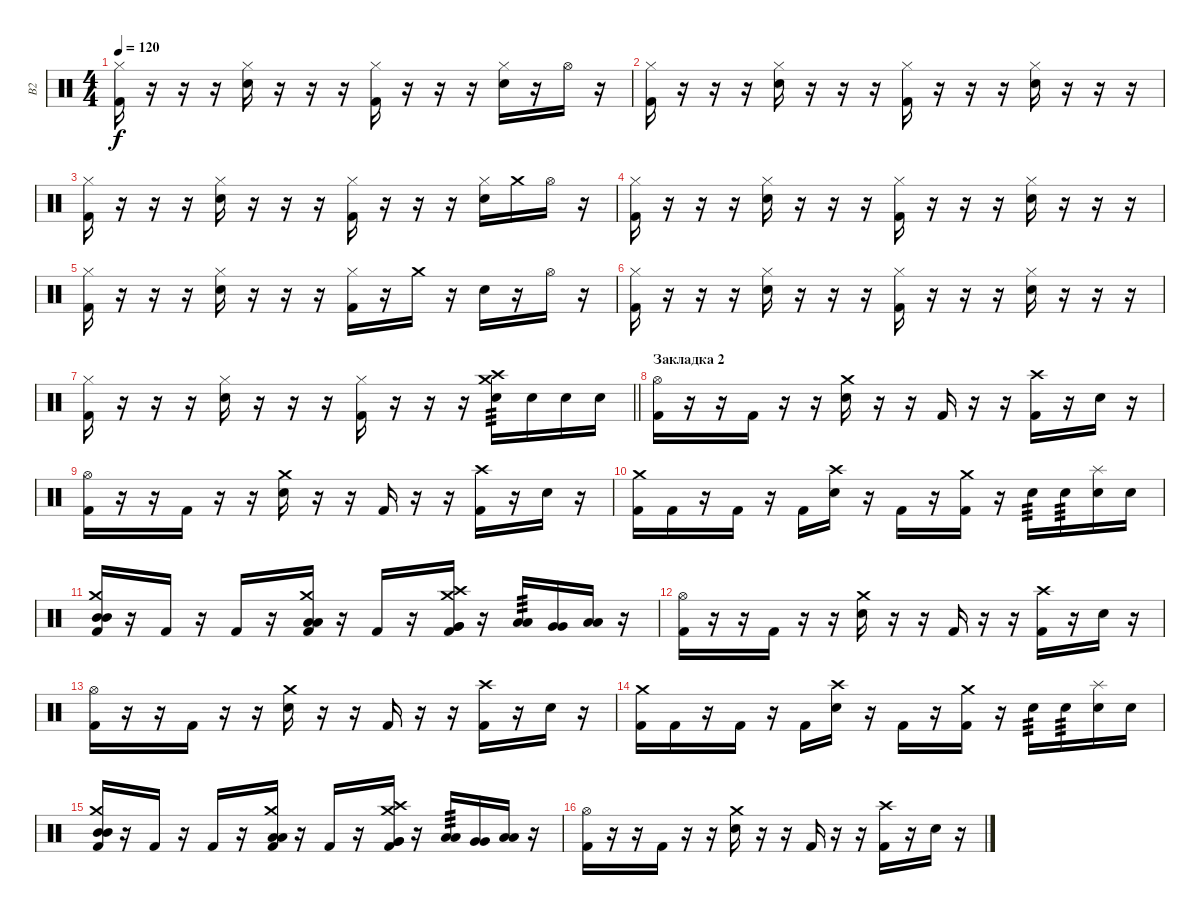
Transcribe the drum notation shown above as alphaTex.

\track ("В2" "В2") {instrument percussion}
\staff {score}
\articulation defaults
\ts (4 4)
\tempo 120
\clef neutral
\ks c
("Hi-Hat (closed)" "Kick (hit) 2").16{dy f} r.16 r.16 r.16 ("Hi-Hat (closed)" "Snare (hit) 2").16 r.16 r.16 r.16 ("Hi-Hat (closed)" "Kick (hit) 2").16 r.16 r.16 r.16 ("Hi-Hat (closed)" "Snare (hit) 2").16 r.16 "Hi-Hat (open)".16 r.16 |
("Hi-Hat (closed)" "Kick (hit) 2").16 r.16 r.16 r.16 ("Hi-Hat (closed)" "Snare (hit) 2").16 r.16 r.16 r.16 ("Hi-Hat (closed)" "Kick (hit) 2").16 r.16 r.16 r.16 ("Hi-Hat (closed)" "Snare (hit) 2").16 r.16 r.16 r.16 |
("Hi-Hat (closed)" "Kick (hit) 2").16 r.16 r.16 r.16 ("Hi-Hat (closed)" "Snare (hit) 2").16 r.16 r.16 r.16 ("Hi-Hat (closed)" "Kick (hit) 2").16 r.16 r.16 r.16 ("Hi-Hat (closed)" "Snare (hit) 2").16 "Crash medium (hit)".16 "Hi-Hat (open)".16 r.16 |
("Hi-Hat (closed)" "Kick (hit) 2").16 r.16 r.16 r.16 ("Hi-Hat (closed)" "Snare (hit) 2").16 r.16 r.16 r.16 ("Hi-Hat (closed)" "Kick (hit) 2").16 r.16 r.16 r.16 ("Hi-Hat (closed)" "Snare (hit) 2").16 r.16 r.16 r.16 |
("Hi-Hat (closed)" "Kick (hit) 2").16 r.16 r.16 r.16 ("Hi-Hat (closed)" "Snare (hit) 2").16 r.16 r.16 r.16 ("Hi-Hat (closed)" "Kick (hit) 2").16 r.16 "Crash medium (hit)".16 r.16 "Snare (hit) 2".16 r.16 "Hi-Hat (open)".16 r.16 |
("Hi-Hat (closed)" "Kick (hit) 2").16 r.16 r.16 r.16 ("Hi-Hat (closed)" "Snare (hit) 2").16 r.16 r.16 r.16 ("Hi-Hat (closed)" "Kick (hit) 2").16 r.16 r.16 r.16 ("Hi-Hat (closed)" "Snare (hit) 2").16 r.16 r.16 r.16 |
\barLineRight lightlight
("Hi-Hat (closed)" "Kick (hit) 2").16 r.16 r.16 r.16 ("Hi-Hat (closed)" "Snare (hit) 2").16 r.16 r.16 r.16 ("Hi-Hat (closed)" "Kick (hit) 2").16 r.16 r.16 r.16 ("Crash medium (hit)" "Crash high (hit)" "Snare (hit) 2").16{tp 3} "Snare (hit) 2".16 "Snare (hit) 2".16 "Snare (hit) 2".16 |
\section ("" "Закладка 2")
("Hi-Hat (open)" "Kick (hit) 2").16 r.16 r.16 "Kick (hit) 2".16 r.16 r.16 ("Crash medium (hit)" "Snare (hit) 2").16 r.16 r.16 "Kick (hit) 2".16 r.16 r.16 ("Crash high (hit)" "Kick (hit) 2").16 r.16 "Snare (hit) 2".16 r.16 |
("Hi-Hat (open)" "Kick (hit) 2").16 r.16 r.16 "Kick (hit) 2".16 r.16 r.16 ("Crash medium (hit)" "Snare (hit) 2").16 r.16 r.16 "Kick (hit) 2".16 r.16 r.16 ("Crash high (hit)" "Kick (hit) 2").16 r.16 "Snare (hit) 2".16 r.16 |
("Crash medium (hit)" "Kick (hit) 2").16 "Kick (hit) 2".16 r.16 "Kick (hit) 2".16 r.16 "Kick (hit) 2".16 ("Crash high (hit)" "Snare (hit) 2").16 r.16 "Kick (hit) 2".16 r.16 ("Crash medium (hit)" "Kick (hit) 2").16 r.16 "Snare (hit) 2".16{tp 3} "Snare (hit) 2".16{tp 3} ("Splash (hit)" "Snare (hit) 2").16 "Snare (hit) 2".16 |
("Crash medium (hit)" "Mid Tom (hit)" "Mid Tom (hit)" "Kick (hit) 2").16 r.16 "Kick (hit) 2".16 r.16 "Kick (hit) 2".16 r.16 ("Crash medium (hit)" "Low Tom (hit)" "Low Tom (hit)" "Kick (hit) 2").16 r.16 "Kick (hit) 2".16 r.16 ("Crash high (hit)" "Crash medium (hit)" "Very Low Tom (hit)" "Very Low Tom (hit)" "Kick (hit) 2").16 r.16 ("Low Tom (hit)" "Low Tom (hit)").16{tp 3} ("Very Low Tom (hit)" "Very Low Tom (hit)").16 ("Low Floor Tom (hit)" "Low Floor Tom (hit)").16 r.16 |
("Hi-Hat (open)" "Kick (hit) 2").16 r.16 r.16 "Kick (hit) 2".16 r.16 r.16 ("Crash medium (hit)" "Snare (hit) 2").16 r.16 r.16 "Kick (hit) 2".16 r.16 r.16 ("Crash high (hit)" "Kick (hit) 2").16 r.16 "Snare (hit) 2".16 r.16 |
("Hi-Hat (open)" "Kick (hit) 2").16 r.16 r.16 "Kick (hit) 2".16 r.16 r.16 ("Crash medium (hit)" "Snare (hit) 2").16 r.16 r.16 "Kick (hit) 2".16 r.16 r.16 ("Crash high (hit)" "Kick (hit) 2").16 r.16 "Snare (hit) 2".16 r.16 |
("Crash medium (hit)" "Kick (hit) 2").16 "Kick (hit) 2".16 r.16 "Kick (hit) 2".16 r.16 "Kick (hit) 2".16 ("Crash high (hit)" "Snare (hit) 2").16 r.16 "Kick (hit) 2".16 r.16 ("Crash medium (hit)" "Kick (hit) 2").16 r.16 "Snare (hit) 2".16{tp 3} "Snare (hit) 2".16{tp 3} ("Splash (hit)" "Snare (hit) 2").16 "Snare (hit) 2".16 |
("Crash medium (hit)" "Mid Tom (hit)" "Mid Tom (hit)" "Kick (hit) 2").16 r.16 "Kick (hit) 2".16 r.16 "Kick (hit) 2".16 r.16 ("Crash medium (hit)" "Low Tom (hit)" "Low Tom (hit)" "Kick (hit) 2").16 r.16 "Kick (hit) 2".16 r.16 ("Crash high (hit)" "Crash medium (hit)" "Very Low Tom (hit)" "Very Low Tom (hit)" "Kick (hit) 2").16 r.16 ("Low Tom (hit)" "Low Tom (hit)").16{tp 3} ("Very Low Tom (hit)" "Very Low Tom (hit)").16 ("Low Floor Tom (hit)" "Low Floor Tom (hit)").16 r.16 |
("Hi-Hat (open)" "Kick (hit) 2").16 r.16 r.16 "Kick (hit) 2".16 r.16 r.16 ("Crash medium (hit)" "Snare (hit) 2").16 r.16 r.16 "Kick (hit) 2".16 r.16 r.16 ("Crash high (hit)" "Kick (hit) 2").16 r.16 "Snare (hit) 2".16 r.16
